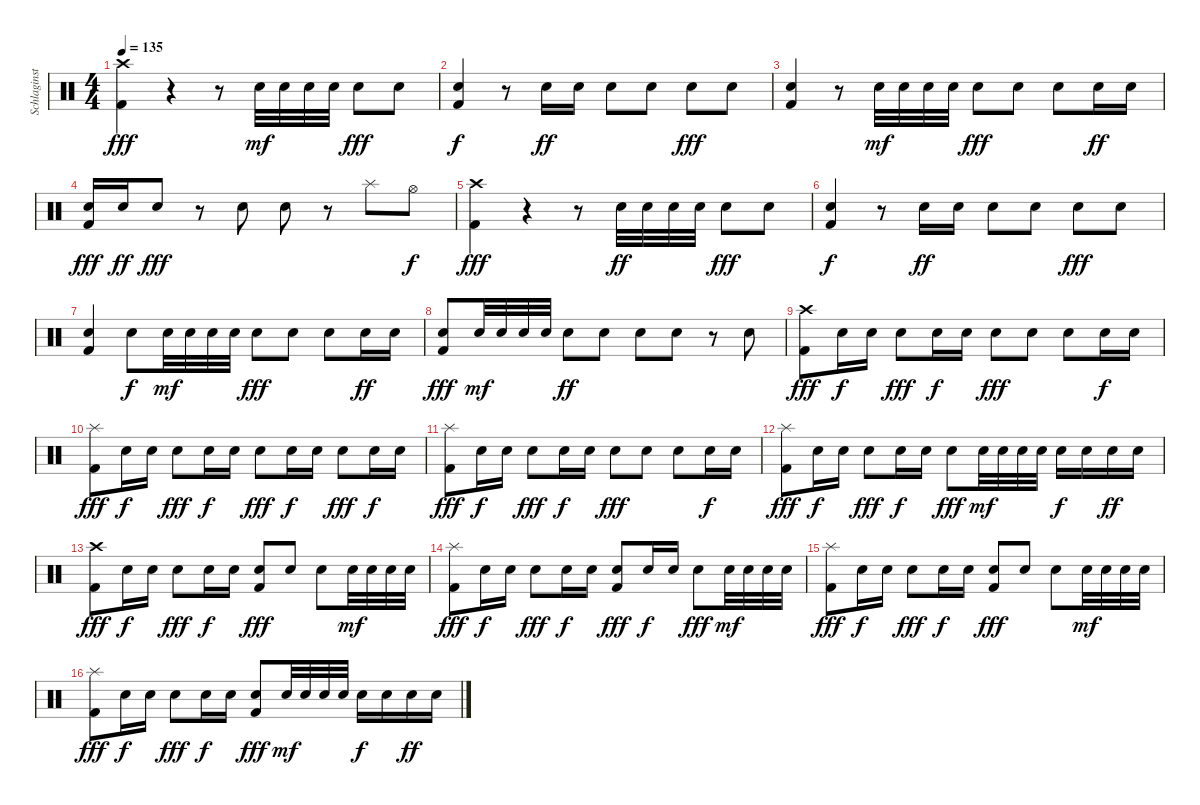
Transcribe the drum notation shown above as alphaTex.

\track ("Schlaginstrumente - Auswahl" "Schlaginst") {instrument percussion}
\staff {score}
\articulation defaults
\ts (4 4)
\tempo 135
\clef neutral
\ks c
("Crash high (hit)" "Kick (hit) 2").4{dy fff} r.4 r.8 "Snare (hit) 2".32{dy mf} "Snare (hit) 2".32 "Snare (hit) 2".32 "Snare (hit) 2".32 "Snare (hit) 2".8{dy fff} "Snare (hit) 2".8 |
("Snare (hit) 2" "Kick (hit) 2").4{dy f} r.8 "Snare (hit) 2".16{dy ff} "Snare (hit) 2".16 "Snare (hit) 2".8 "Snare (hit) 2".8 "Snare (hit) 2".8{dy fff} "Snare (hit) 2".8 |
("Snare (hit) 2" "Kick (hit) 2").4 r.8 "Snare (hit) 2".32{dy mf} "Snare (hit) 2".32 "Snare (hit) 2".32 "Snare (hit) 2".32 "Snare (hit) 2".8{dy fff} "Snare (hit) 2".8 "Snare (hit) 2".8 "Snare (hit) 2".16{dy ff} "Snare (hit) 2".16 |
("Snare (hit) 2" "Kick (hit) 2").16{dy fff} "Snare (hit) 2".16{dy ff} "Snare (hit) 2".8{dy fff} r.8 "Snare (hit) 2".8 "Snare (hit) 2".8 r.8 "Splash (hit)".8 "Hi-Hat (open)".8{dy f} |
("Crash high (hit)" "Kick (hit) 2").4{dy fff} r.4 r.8 "Snare (hit) 2".32{dy ff} "Snare (hit) 2".32 "Snare (hit) 2".32 "Snare (hit) 2".32 "Snare (hit) 2".8{dy fff} "Snare (hit) 2".8 |
("Snare (hit) 2" "Kick (hit) 2").4{dy f} r.8 "Snare (hit) 2".16{dy ff} "Snare (hit) 2".16 "Snare (hit) 2".8 "Snare (hit) 2".8 "Snare (hit) 2".8{dy fff} "Snare (hit) 2".8 |
("Snare (hit) 2" "Kick (hit) 2").4 "Snare (hit) 2".8{dy f} "Snare (hit) 2".32{dy mf} "Snare (hit) 2".32 "Snare (hit) 2".32 "Snare (hit) 2".32 "Snare (hit) 2".8{dy fff} "Snare (hit) 2".8 "Snare (hit) 2".8 "Snare (hit) 2".16{dy ff} "Snare (hit) 2".16 |
("Snare (hit) 2" "Kick (hit) 2").8{dy fff} "Snare (hit) 2".32{dy mf} "Snare (hit) 2".32 "Snare (hit) 2".32 "Snare (hit) 2".32 "Snare (hit) 2".8{dy ff} "Snare (hit) 2".8 "Snare (hit) 2".8 "Snare (hit) 2".8 r.8 "Snare (hit) 2".8 |
("Crash high (hit)" "Kick (hit) 2").8{dy fff} "Snare (hit) 2".16{dy f} "Snare (hit) 2".16 "Snare (hit) 2".8{dy fff} "Snare (hit) 2".16{dy f} "Snare (hit) 2".16 "Snare (hit) 2".8{dy fff} "Snare (hit) 2".8 "Snare (hit) 2".8 "Snare (hit) 2".16{dy f} "Snare (hit) 2".16 |
("Splash (hit)" "Kick (hit) 2").8{dy fff} "Snare (hit) 2".16{dy f} "Snare (hit) 2".16 "Snare (hit) 2".8{dy fff} "Snare (hit) 2".16{dy f} "Snare (hit) 2".16 "Snare (hit) 2".8{dy fff} "Snare (hit) 2".16{dy f} "Snare (hit) 2".16 "Snare (hit) 2".8{dy fff} "Snare (hit) 2".16{dy f} "Snare (hit) 2".16 |
("Splash (hit)" "Kick (hit) 2").8{dy fff} "Snare (hit) 2".16{dy f} "Snare (hit) 2".16 "Snare (hit) 2".8{dy fff} "Snare (hit) 2".16{dy f} "Snare (hit) 2".16 "Snare (hit) 2".8{dy fff} "Snare (hit) 2".8 "Snare (hit) 2".8 "Snare (hit) 2".16{dy f} "Snare (hit) 2".16 |
("Splash (hit)" "Kick (hit) 2").8{dy fff} "Snare (hit) 2".16{dy f} "Snare (hit) 2".16 "Snare (hit) 2".8{dy fff} "Snare (hit) 2".16{dy f} "Snare (hit) 2".16 "Snare (hit) 2".8{dy fff} "Snare (hit) 2".32{dy mf} "Snare (hit) 2".32 "Snare (hit) 2".32 "Snare (hit) 2".32 "Snare (hit) 2".16{dy f} "Snare (hit) 2".16 "Snare (hit) 2".16{dy ff} "Snare (hit) 2".16 |
("Crash high (hit)" "Kick (hit) 2").8{dy fff} "Snare (hit) 2".16{dy f} "Snare (hit) 2".16 "Snare (hit) 2".8{dy fff} "Snare (hit) 2".16{dy f} "Snare (hit) 2".16 ("Snare (hit) 2" "Kick (hit) 2").8{dy fff} "Snare (hit) 2".8 "Snare (hit) 2".8 "Snare (hit) 2".32{dy mf} "Snare (hit) 2".32 "Snare (hit) 2".32 "Snare (hit) 2".32 |
("Splash (hit)" "Kick (hit) 2").8{dy fff} "Snare (hit) 2".16{dy f} "Snare (hit) 2".16 "Snare (hit) 2".8{dy fff} "Snare (hit) 2".16{dy f} "Snare (hit) 2".16 ("Snare (hit) 2" "Kick (hit) 2").8{dy fff} "Snare (hit) 2".16{dy f} "Snare (hit) 2".16 "Snare (hit) 2".8{dy fff} "Snare (hit) 2".32{dy mf} "Snare (hit) 2".32 "Snare (hit) 2".32 "Snare (hit) 2".32 |
("Splash (hit)" "Kick (hit) 2").8{dy fff} "Snare (hit) 2".16{dy f} "Snare (hit) 2".16 "Snare (hit) 2".8{dy fff} "Snare (hit) 2".16{dy f} "Snare (hit) 2".16 ("Snare (hit) 2" "Kick (hit) 2").8{dy fff} "Snare (hit) 2".8 "Snare (hit) 2".8 "Snare (hit) 2".32{dy mf} "Snare (hit) 2".32 "Snare (hit) 2".32 "Snare (hit) 2".32 |
("Splash (hit)" "Kick (hit) 2").8{dy fff} "Snare (hit) 2".16{dy f} "Snare (hit) 2".16 "Snare (hit) 2".8{dy fff} "Snare (hit) 2".16{dy f} "Snare (hit) 2".16 ("Snare (hit) 2" "Kick (hit) 2").8{dy fff} "Snare (hit) 2".32{dy mf} "Snare (hit) 2".32 "Snare (hit) 2".32 "Snare (hit) 2".32 "Snare (hit) 2".16{dy f} "Snare (hit) 2".16 "Snare (hit) 2".16{dy ff} "Snare (hit) 2".16
